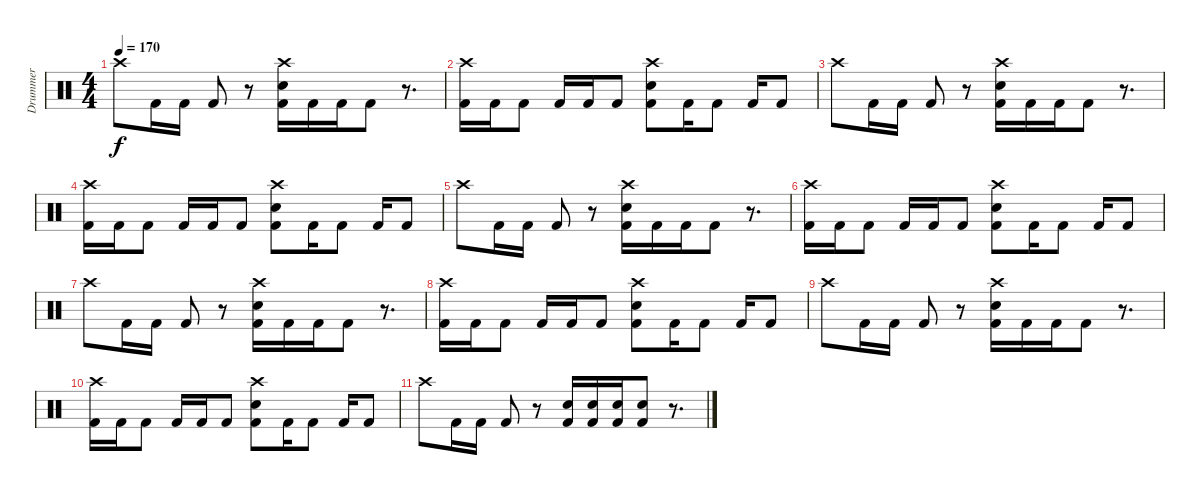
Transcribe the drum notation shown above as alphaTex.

\track ("Drummer" "Drummer") {instrument percussion}
\staff {score}
\articulation defaults
\ts (4 4)
\tempo 170
\clef neutral
\ks c "Crash high (hit)".8{dy f} "Kick (hit) 2".16 "Kick (hit) 2".16 "Kick (hit) 2".8
r.8 ("Crash high (hit)" "Electric Snare (hit)" "Kick (hit) 2").16 "Kick (hit) 2".16 "Kick (hit) 2".16 "Kick (hit) 2".8 r.8{d} |
("Crash high (hit)" "Kick (hit) 2").16 "Kick (hit) 2".16 "Kick (hit) 2".8 "Kick (hit) 2".16 "Kick (hit) 2".16 "Kick (hit) 2".8 ("Crash high (hit)" "Electric Snare (hit)" "Kick (hit) 2").8 "Kick (hit) 2".16 "Kick (hit) 2".8 "Kick (hit) 2".16 "Kick (hit) 2".8 |
"Crash high (hit)".8 "Kick (hit) 2".16 "Kick (hit) 2".16 "Kick (hit) 2".8 r.8 ("Crash high (hit)" "Electric Snare (hit)" "Kick (hit) 2").16 "Kick (hit) 2".16 "Kick (hit) 2".16 "Kick (hit) 2".8 r.8{d} |
("Crash high (hit)" "Kick (hit) 2").16 "Kick (hit) 2".16 "Kick (hit) 2".8 "Kick (hit) 2".16 "Kick (hit) 2".16 "Kick (hit) 2".8 ("Crash high (hit)" "Electric Snare (hit)" "Kick (hit) 2").8 "Kick (hit) 2".16 "Kick (hit) 2".8 "Kick (hit) 2".16 "Kick (hit) 2".8 |
"Crash high (hit)".8 "Kick (hit) 2".16 "Kick (hit) 2".16 "Kick (hit) 2".8 r.8 ("Crash high (hit)" "Electric Snare (hit)" "Kick (hit) 2").16 "Kick (hit) 2".16 "Kick (hit) 2".16 "Kick (hit) 2".8 r.8{d} |
("Crash high (hit)" "Kick (hit) 2").16 "Kick (hit) 2".16 "Kick (hit) 2".8 "Kick (hit) 2".16 "Kick (hit) 2".16 "Kick (hit) 2".8 ("Crash high (hit)" "Electric Snare (hit)" "Kick (hit) 2").8 "Kick (hit) 2".16 "Kick (hit) 2".8 "Kick (hit) 2".16 "Kick (hit) 2".8 |
"Crash high (hit)".8 "Kick (hit) 2".16 "Kick (hit) 2".16 "Kick (hit) 2".8 r.8 ("Crash high (hit)" "Electric Snare (hit)" "Kick (hit) 2").16 "Kick (hit) 2".16 "Kick (hit) 2".16 "Kick (hit) 2".8 r.8{d} |
("Crash high (hit)" "Kick (hit) 2").16 "Kick (hit) 2".16 "Kick (hit) 2".8 "Kick (hit) 2".16 "Kick (hit) 2".16 "Kick (hit) 2".8 ("Crash high (hit)" "Electric Snare (hit)" "Kick (hit) 2").8 "Kick (hit) 2".16 "Kick (hit) 2".8 "Kick (hit) 2".16 "Kick (hit) 2".8 |
"Crash high (hit)".8 "Kick (hit) 2".16 "Kick (hit) 2".16 "Kick (hit) 2".8 r.8 ("Crash high (hit)" "Electric Snare (hit)" "Kick (hit) 2").16 "Kick (hit) 2".16 "Kick (hit) 2".16 "Kick (hit) 2".8 r.8{d} |
("Crash high (hit)" "Kick (hit) 2").16 "Kick (hit) 2".16 "Kick (hit) 2".8 "Kick (hit) 2".16 "Kick (hit) 2".16 "Kick (hit) 2".8 ("Crash high (hit)" "Electric Snare (hit)" "Kick (hit) 2").8 "Kick (hit) 2".16 "Kick (hit) 2".8 "Kick (hit) 2".16 "Kick (hit) 2".8 |
"Crash high (hit)".8 "Kick (hit) 2".16 "Kick (hit) 2".16 "Kick (hit) 2".8 r.8 ("Electric Snare (hit)" "Kick (hit) 2").16 ("Electric Snare (hit)" "Kick (hit) 2").16 ("Electric Snare (hit)" "Kick (hit) 2").16 ("Electric Snare (hit)" "Kick (hit) 2").8 r.8{d}
